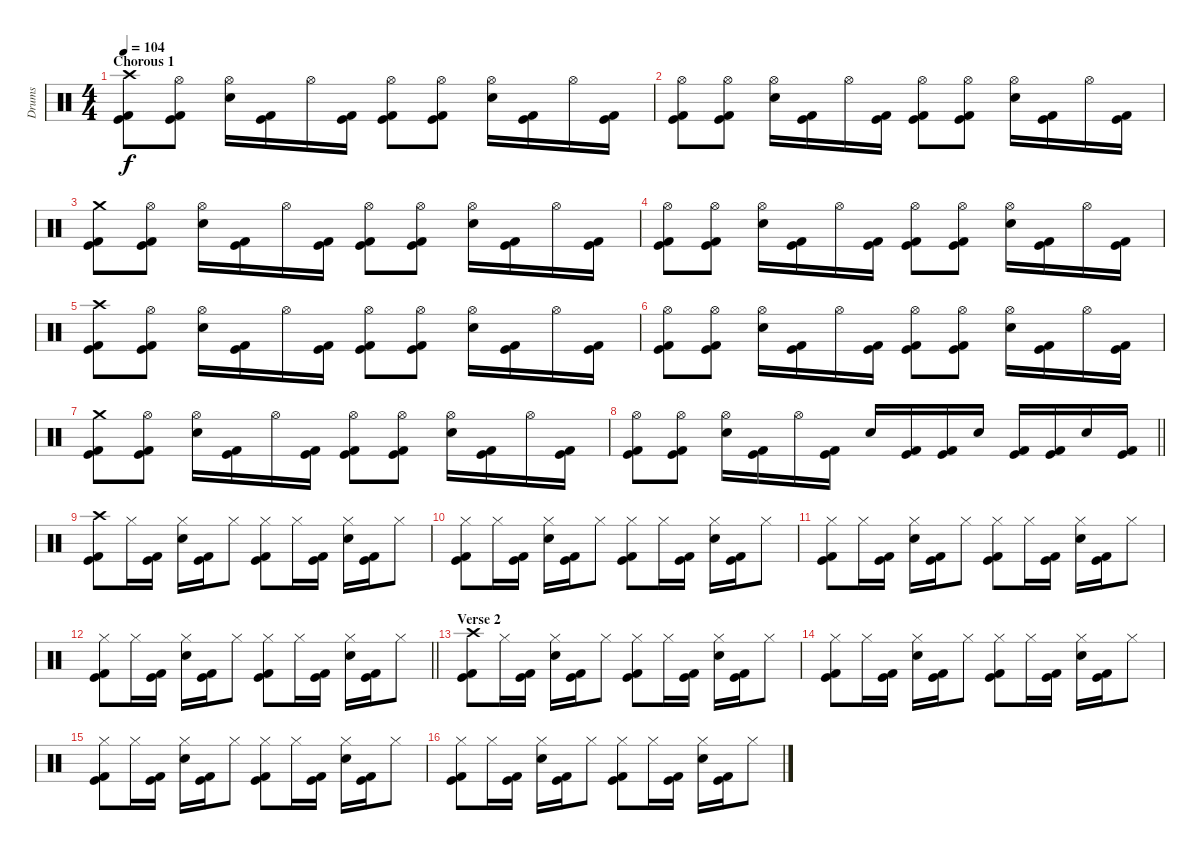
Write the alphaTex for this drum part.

\track ("Drums" "Drums") {instrument percussion}
\staff {score}
\articulation defaults
\ts (4 4)
\section ("" "Chorous 1")
\tempo 104
\clef neutral
\ks c
("Crash high (hit)" "Kick (hit)" "Kick (hit) 2").8{dy f} ("Hi-Hat (open)" "Kick (hit)" "Kick (hit) 2").8 ("Hi-Hat (open)" "Electric Snare (hit)").16 ("Kick (hit)" "Kick (hit) 2").16 "Hi-Hat (open)".16 ("Kick (hit)" "Kick (hit) 2").16 ("Hi-Hat (open)" "Kick (hit)" "Kick (hit) 2").8 ("Hi-Hat (open)" "Kick (hit)" "Kick (hit) 2").8 ("Hi-Hat (open)" "Electric Snare (hit)").16 ("Kick (hit)" "Kick (hit) 2").16 "Hi-Hat (open)".16 ("Kick (hit)" "Kick (hit) 2").16 |
("Hi-Hat (open)" "Kick (hit)" "Kick (hit) 2").8 ("Hi-Hat (open)" "Kick (hit)" "Kick (hit) 2").8 ("Hi-Hat (open)" "Electric Snare (hit)").16 ("Kick (hit)" "Kick (hit) 2").16 "Hi-Hat (open)".16 ("Kick (hit)" "Kick (hit) 2").16 ("Hi-Hat (open)" "Kick (hit)" "Kick (hit) 2").8 ("Hi-Hat (open)" "Kick (hit)" "Kick (hit) 2").8 ("Hi-Hat (open)" "Electric Snare (hit)").16 ("Kick (hit)" "Kick (hit) 2").16 "Hi-Hat (open)".16 ("Kick (hit)" "Kick (hit) 2").16 |
("Crash medium (hit)" "Kick (hit)" "Kick (hit) 2").8 ("Hi-Hat (open)" "Kick (hit)" "Kick (hit) 2").8 ("Hi-Hat (open)" "Electric Snare (hit)").16 ("Kick (hit)" "Kick (hit) 2").16 "Hi-Hat (open)".16 ("Kick (hit)" "Kick (hit) 2").16 ("Hi-Hat (open)" "Kick (hit)" "Kick (hit) 2").8 ("Hi-Hat (open)" "Kick (hit)" "Kick (hit) 2").8 ("Hi-Hat (open)" "Electric Snare (hit)").16 ("Kick (hit)" "Kick (hit) 2").16 "Hi-Hat (open)".16 ("Kick (hit)" "Kick (hit) 2").16 |
("Hi-Hat (open)" "Kick (hit)" "Kick (hit) 2").8 ("Hi-Hat (open)" "Kick (hit)" "Kick (hit) 2").8 ("Hi-Hat (open)" "Electric Snare (hit)").16 ("Kick (hit)" "Kick (hit) 2").16 "Hi-Hat (open)".16 ("Kick (hit)" "Kick (hit) 2").16 ("Hi-Hat (open)" "Kick (hit)" "Kick (hit) 2").8 ("Hi-Hat (open)" "Kick (hit)" "Kick (hit) 2").8 ("Hi-Hat (open)" "Electric Snare (hit)").16 ("Kick (hit)" "Kick (hit) 2").16 "Hi-Hat (open)".16 ("Kick (hit)" "Kick (hit) 2").16 |
("Crash high (hit)" "Kick (hit)" "Kick (hit) 2").8 ("Hi-Hat (open)" "Kick (hit)" "Kick (hit) 2").8 ("Hi-Hat (open)" "Electric Snare (hit)").16 ("Kick (hit)" "Kick (hit) 2").16 "Hi-Hat (open)".16 ("Kick (hit)" "Kick (hit) 2").16 ("Hi-Hat (open)" "Kick (hit)" "Kick (hit) 2").8 ("Hi-Hat (open)" "Kick (hit)" "Kick (hit) 2").8 ("Hi-Hat (open)" "Electric Snare (hit)").16 ("Kick (hit)" "Kick (hit) 2").16 "Hi-Hat (open)".16 ("Kick (hit)" "Kick (hit) 2").16 |
("Hi-Hat (open)" "Kick (hit)" "Kick (hit) 2").8 ("Hi-Hat (open)" "Kick (hit)" "Kick (hit) 2").8 ("Hi-Hat (open)" "Electric Snare (hit)").16 ("Kick (hit)" "Kick (hit) 2").16 "Hi-Hat (open)".16 ("Kick (hit)" "Kick (hit) 2").16 ("Hi-Hat (open)" "Kick (hit)" "Kick (hit) 2").8 ("Hi-Hat (open)" "Kick (hit)" "Kick (hit) 2").8 ("Hi-Hat (open)" "Electric Snare (hit)").16 ("Kick (hit)" "Kick (hit) 2").16 "Hi-Hat (open)".16 ("Kick (hit)" "Kick (hit) 2").16 |
("Crash medium (hit)" "Kick (hit)" "Kick (hit) 2").8 ("Hi-Hat (open)" "Kick (hit)" "Kick (hit) 2").8 ("Hi-Hat (open)" "Electric Snare (hit)").16 ("Kick (hit)" "Kick (hit) 2").16 "Hi-Hat (open)".16 ("Kick (hit)" "Kick (hit) 2").16 ("Hi-Hat (open)" "Kick (hit)" "Kick (hit) 2").8 ("Hi-Hat (open)" "Kick (hit)" "Kick (hit) 2").8 ("Hi-Hat (open)" "Electric Snare (hit)").16 ("Kick (hit)" "Kick (hit) 2").16 "Hi-Hat (open)".16 ("Kick (hit)" "Kick (hit) 2").16 |
\barLineRight lightlight
("Hi-Hat (open)" "Kick (hit)" "Kick (hit) 2").8 ("Hi-Hat (open)" "Kick (hit)" "Kick (hit) 2").8 ("Hi-Hat (open)" "Electric Snare (hit)").16 ("Kick (hit)" "Kick (hit) 2").16 "Hi-Hat (open)".16 ("Kick (hit)" "Kick (hit) 2").16 "Electric Snare (hit)".16 ("Kick (hit)" "Kick (hit) 2").16 ("Kick (hit)" "Kick (hit) 2").16 "Electric Snare (hit)".16 ("Kick (hit)" "Kick (hit) 2").16 ("Kick (hit)" "Kick (hit) 2").16 "Electric Snare (hit)".16 ("Kick (hit)" "Kick (hit) 2").16 |
\section ("" "")
("Crash high (hit)" "Kick (hit)" "Kick (hit) 2").8 "Hi-Hat (closed)".16 ("Kick (hit)" "Kick (hit) 2").16 ("Hi-Hat (closed)" "Electric Snare (hit)").16 ("Kick (hit)" "Kick (hit) 2").16 "Hi-Hat (closed)".8 ("Hi-Hat (closed)" "Kick (hit)" "Kick (hit) 2").8 "Hi-Hat (closed)".16 ("Kick (hit)" "Kick (hit) 2").16 ("Hi-Hat (closed)" "Electric Snare (hit)").16 ("Kick (hit)" "Kick (hit) 2").16 "Hi-Hat (closed)".8 |
("Hi-Hat (closed)" "Kick (hit)" "Kick (hit) 2").8 "Hi-Hat (closed)".16 ("Kick (hit)" "Kick (hit) 2").16 ("Hi-Hat (closed)" "Electric Snare (hit)").16 ("Kick (hit)" "Kick (hit) 2").16 "Hi-Hat (closed)".8 ("Hi-Hat (closed)" "Kick (hit)" "Kick (hit) 2").8 "Hi-Hat (closed)".16 ("Kick (hit)" "Kick (hit) 2").16 ("Hi-Hat (closed)" "Electric Snare (hit)").16 ("Kick (hit)" "Kick (hit) 2").16 "Hi-Hat (closed)".8 |
("Hi-Hat (closed)" "Kick (hit)" "Kick (hit) 2").8 "Hi-Hat (closed)".16 ("Kick (hit)" "Kick (hit) 2").16 ("Hi-Hat (closed)" "Electric Snare (hit)").16 ("Kick (hit)" "Kick (hit) 2").16 "Hi-Hat (closed)".8 ("Hi-Hat (closed)" "Kick (hit)" "Kick (hit) 2").8 "Hi-Hat (closed)".16 ("Kick (hit)" "Kick (hit) 2").16 ("Hi-Hat (closed)" "Electric Snare (hit)").16 ("Kick (hit)" "Kick (hit) 2").16 "Hi-Hat (closed)".8 |
\barLineRight lightlight
("Hi-Hat (closed)" "Kick (hit)" "Kick (hit) 2").8 "Hi-Hat (closed)".16 ("Kick (hit)" "Kick (hit) 2").16 ("Hi-Hat (closed)" "Electric Snare (hit)").16 ("Kick (hit)" "Kick (hit) 2").16 "Hi-Hat (closed)".8 ("Hi-Hat (closed)" "Kick (hit)" "Kick (hit) 2").8 "Hi-Hat (closed)".16 ("Kick (hit)" "Kick (hit) 2").16 ("Hi-Hat (closed)" "Electric Snare (hit)").16 ("Kick (hit)" "Kick (hit) 2").16 "Hi-Hat (closed)".8 |
\section ("" "Verse 2")
("Crash high (hit)" "Kick (hit)" "Kick (hit) 2").8 "Hi-Hat (closed)".16 ("Kick (hit)" "Kick (hit) 2").16 ("Hi-Hat (closed)" "Electric Snare (hit)").16 ("Kick (hit)" "Kick (hit) 2").16 "Hi-Hat (closed)".8 ("Hi-Hat (closed)" "Kick (hit)" "Kick (hit) 2").8 "Hi-Hat (closed)".16 ("Kick (hit)" "Kick (hit) 2").16 ("Hi-Hat (closed)" "Electric Snare (hit)").16 ("Kick (hit)" "Kick (hit) 2").16 "Hi-Hat (closed)".8 |
("Hi-Hat (closed)" "Kick (hit)" "Kick (hit) 2").8 "Hi-Hat (closed)".16 ("Kick (hit)" "Kick (hit) 2").16 ("Hi-Hat (closed)" "Electric Snare (hit)").16 ("Kick (hit)" "Kick (hit) 2").16 "Hi-Hat (closed)".8 ("Hi-Hat (closed)" "Kick (hit)" "Kick (hit) 2").8 "Hi-Hat (closed)".16 ("Kick (hit)" "Kick (hit) 2").16 ("Hi-Hat (closed)" "Electric Snare (hit)").16 ("Kick (hit)" "Kick (hit) 2").16 "Hi-Hat (closed)".8 |
("Hi-Hat (closed)" "Kick (hit)" "Kick (hit) 2").8 "Hi-Hat (closed)".16 ("Kick (hit)" "Kick (hit) 2").16 ("Hi-Hat (closed)" "Electric Snare (hit)").16 ("Kick (hit)" "Kick (hit) 2").16 "Hi-Hat (closed)".8 ("Hi-Hat (closed)" "Kick (hit)" "Kick (hit) 2").8 "Hi-Hat (closed)".16 ("Kick (hit)" "Kick (hit) 2").16 ("Hi-Hat (closed)" "Electric Snare (hit)").16 ("Kick (hit)" "Kick (hit) 2").16 "Hi-Hat (closed)".8 |
("Hi-Hat (closed)" "Kick (hit)" "Kick (hit) 2").8 "Hi-Hat (closed)".16 ("Kick (hit)" "Kick (hit) 2").16 ("Hi-Hat (closed)" "Electric Snare (hit)").16 ("Kick (hit)" "Kick (hit) 2").16 "Hi-Hat (closed)".8 ("Hi-Hat (closed)" "Kick (hit)" "Kick (hit) 2").8 "Hi-Hat (closed)".16 ("Kick (hit)" "Kick (hit) 2").16 ("Hi-Hat (closed)" "Electric Snare (hit)").16 ("Kick (hit)" "Kick (hit) 2").16 "Hi-Hat (closed)".8
